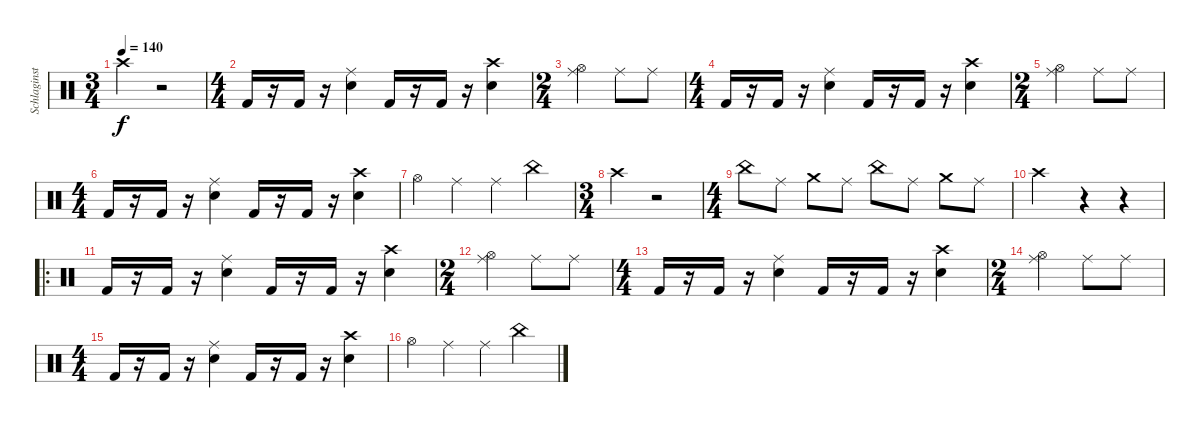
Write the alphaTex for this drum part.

\track ("Schlaginstrumente - Auswahl" "Schlaginst") {instrument percussion}
\staff {score}
\articulation defaults
\ts (3 4)
\tempo 140
\clef neutral
\ks c "Crash high (hit)".4{dy f}
r.2 |
\ts (4 4)
"Kick (hit) 2".16 r.16 "Kick (hit) 2".16 r.16 ("Snare (hit) 2" "Ride (middle)").4 "Kick (hit) 2".16 r.16 "Kick (hit) 2".16 r.16 ("Snare (hit) 2" "Crash high (hit)").4 |
\ts (2 4)
("Hi-Hat (open)" "Ride (middle)").4 "Ride (middle)".8 "Ride (middle)".8 |
\ts (4 4)
"Kick (hit) 2".16 r.16 "Kick (hit) 2".16 r.16 ("Snare (hit) 2" "Ride (middle)").4 "Kick (hit) 2".16 r.16 "Kick (hit) 2".16 r.16 ("Snare (hit) 2" "Crash high (hit)").4 |
\ts (2 4)
("Hi-Hat (open)" "Ride (middle)").4 "Ride (middle)".8 "Ride (middle)".8 |
\ts (4 4)
"Kick (hit) 2".16 r.16 "Kick (hit) 2".16 r.16 ("Snare (hit) 2" "Ride (middle)").4 "Kick (hit) 2".16 r.16 "Kick (hit) 2".16 r.16 ("Snare (hit) 2" "Crash high (hit)").4 |
"Hi-Hat (open)".4 "Ride (middle)".4 "Ride (middle)".4 "China (hit)".4 |
\ts (3 4)
"Crash high (hit)".4 r.2 |
\ts (4 4)
"China (hit)".8 "Ride (middle)".8 "Crash medium (hit)".8 "Ride (middle)".8 "China (hit)".8 "Ride (middle)".8 "Crash medium (hit)".8 "Ride (middle)".8 |
"Crash high (hit)".2 r.4 r.4 |
\ro "Kick (hit) 2".16
r.16 "Kick (hit) 2".16 r.16 ("Snare (hit) 2" "Ride (middle)").4 "Kick (hit) 2".16 r.16 "Kick (hit) 2".16 r.16 ("Snare (hit) 2" "Crash high (hit)").4 |
\ts (2 4)
("Hi-Hat (open)" "Ride (middle)").4 "Ride (middle)".8 "Ride (middle)".8 |
\ts (4 4)
"Kick (hit) 2".16 r.16 "Kick (hit) 2".16 r.16 ("Snare (hit) 2" "Ride (middle)").4 "Kick (hit) 2".16 r.16 "Kick (hit) 2".16 r.16 ("Snare (hit) 2" "Crash high (hit)").4 |
\ts (2 4)
("Hi-Hat (open)" "Ride (middle)").4 "Ride (middle)".8 "Ride (middle)".8 |
\ts (4 4)
"Kick (hit) 2".16 r.16 "Kick (hit) 2".16 r.16 ("Snare (hit) 2" "Ride (middle)").4 "Kick (hit) 2".16 r.16 "Kick (hit) 2".16 r.16 ("Snare (hit) 2" "Crash high (hit)").4 |
"Hi-Hat (open)".4 "Ride (middle)".4 "Ride (middle)".4 "China (hit)".4
